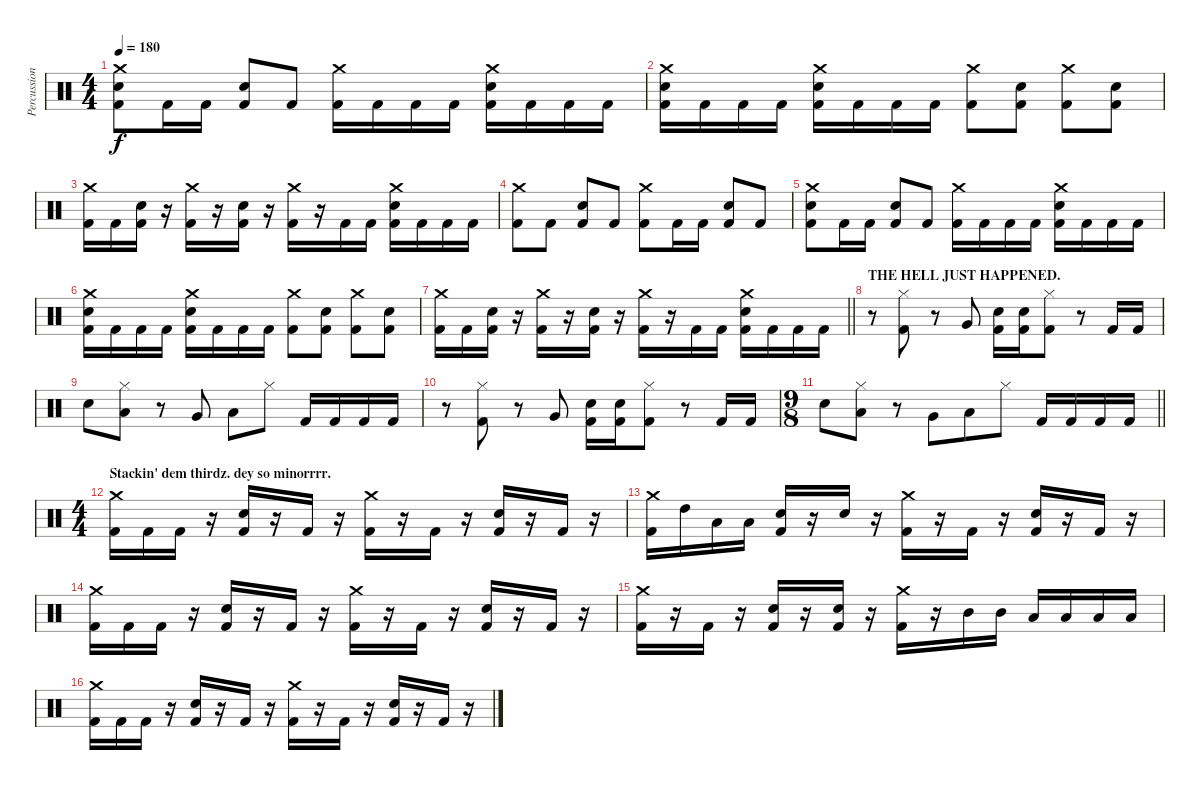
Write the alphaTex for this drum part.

\track ("Percussion" "Percussion") {instrument percussion}
\staff {score}
\articulation defaults
\ts (4 4)
\tempo 180
\clef neutral
\ks c
("Crash medium (hit)" "Electric Snare (hit)" "Kick (hit) 2").8{dy f} "Kick (hit) 2".16 "Kick (hit) 2".16 ("Electric Snare (hit)" "Kick (hit) 2").8 "Kick (hit) 2".8 ("Crash medium (hit)" "Kick (hit) 2").16 "Kick (hit) 2".16 "Kick (hit) 2".16 "Kick (hit) 2".16 ("Crash medium (hit)" "Electric Snare (hit)" "Kick (hit) 2").16 "Kick (hit) 2".16 "Kick (hit) 2".16 "Kick (hit) 2".16 |
("Crash medium (hit)" "Electric Snare (hit)" "Kick (hit) 2").16 "Kick (hit) 2".16 "Kick (hit) 2".16 "Kick (hit) 2".16 ("Crash medium (hit)" "Electric Snare (hit)" "Kick (hit) 2").16 "Kick (hit) 2".16 "Kick (hit) 2".16 "Kick (hit) 2".16 ("Crash medium (hit)" "Kick (hit) 2").8 ("Electric Snare (hit)" "Kick (hit) 2").8 ("Crash medium (hit)" "Kick (hit) 2").8 ("Electric Snare (hit)" "Kick (hit) 2").8 |
("Crash medium (hit)" "Kick (hit) 2").16 "Kick (hit) 2".16 ("Electric Snare (hit)" "Kick (hit) 2").16 r.16 ("Crash medium (hit)" "Kick (hit) 2").16 r.16 ("Electric Snare (hit)" "Kick (hit) 2").16 r.16 ("Crash medium (hit)" "Kick (hit) 2").16 r.16 "Kick (hit) 2".16 "Kick (hit) 2".16 ("Crash medium (hit)" "Electric Snare (hit)" "Kick (hit) 2").16 "Kick (hit) 2".16 "Kick (hit) 2".16 "Kick (hit) 2".16 |
("Crash medium (hit)" "Kick (hit) 2").8 "Kick (hit) 2".8 ("Electric Snare (hit)" "Kick (hit) 2").8 "Kick (hit) 2".8 ("Crash medium (hit)" "Kick (hit) 2").8 "Kick (hit) 2".16 "Kick (hit) 2".16 ("Electric Snare (hit)" "Kick (hit) 2").8 "Kick (hit) 2".8 |
("Crash medium (hit)" "Electric Snare (hit)" "Kick (hit) 2").8 "Kick (hit) 2".16 "Kick (hit) 2".16 ("Electric Snare (hit)" "Kick (hit) 2").8 "Kick (hit) 2".8 ("Crash medium (hit)" "Kick (hit) 2").16 "Kick (hit) 2".16 "Kick (hit) 2".16 "Kick (hit) 2".16 ("Crash medium (hit)" "Electric Snare (hit)" "Kick (hit) 2").16 "Kick (hit) 2".16 "Kick (hit) 2".16 "Kick (hit) 2".16 |
("Crash medium (hit)" "Electric Snare (hit)" "Kick (hit) 2").16 "Kick (hit) 2".16 "Kick (hit) 2".16 "Kick (hit) 2".16 ("Crash medium (hit)" "Electric Snare (hit)" "Kick (hit) 2").16 "Kick (hit) 2".16 "Kick (hit) 2".16 "Kick (hit) 2".16 ("Crash medium (hit)" "Kick (hit) 2").8 ("Electric Snare (hit)" "Kick (hit) 2").8 ("Crash medium (hit)" "Kick (hit) 2").8 ("Electric Snare (hit)" "Kick (hit) 2").8 |
\barLineRight lightlight
("Crash medium (hit)" "Kick (hit) 2").16 "Kick (hit) 2".16 ("Electric Snare (hit)" "Kick (hit) 2").16 r.16 ("Crash medium (hit)" "Kick (hit) 2").16 r.16 ("Electric Snare (hit)" "Kick (hit) 2").16 r.16 ("Crash medium (hit)" "Kick (hit) 2").16 r.16 "Kick (hit) 2".16 "Kick (hit) 2".16 ("Crash medium (hit)" "Electric Snare (hit)" "Kick (hit) 2").16 "Kick (hit) 2".16 "Kick (hit) 2".16 "Kick (hit) 2".16 |
\section ("" "THE HELL JUST HAPPENED.")
r.8 ("Hi-Hat (closed)" "Kick (hit) 2").8 r.8 "Very Low Tom (hit)".8 ("Electric Snare (hit)" "Kick (hit) 2").16 ("Electric Snare (hit)" "Kick (hit) 2").16 ("Hi-Hat (closed)" "Kick (hit) 2").8 r.8 "Kick (hit) 2".16 "Kick (hit) 2".16 |
"Electric Snare (hit)".8 ("Hi-Hat (closed)" "Low Tom (hit)").8 r.8 "Very Low Tom (hit)".8 "Low Floor Tom (hit)".8 "Hi-Hat (closed)".8 "Kick (hit) 2".16 "Kick (hit) 2".16 "Kick (hit) 2".16 "Kick (hit) 2".16 |
r.8 ("Hi-Hat (closed)" "Kick (hit) 2").8 r.8 "Very Low Tom (hit)".8 ("Electric Snare (hit)" "Kick (hit) 2").16 ("Electric Snare (hit)" "Kick (hit) 2").16 ("Hi-Hat (closed)" "Kick (hit) 2").8 r.8 "Kick (hit) 2".16 "Kick (hit) 2".16 |
\ts (9 8)
\barLineRight lightlight "Electric Snare (hit)".8
("Hi-Hat (closed)" "Low Tom (hit)").8 r.8 "Very Low Tom (hit)".8 "Low Floor Tom (hit)".8 "Hi-Hat (closed)".8 "Kick (hit) 2".16 "Kick (hit) 2".16 "Kick (hit) 2".16 "Kick (hit) 2".16 |
\ts (4 4)
\section ("" "Stackin' dem thirdz. dey so minorrrr.")
("Crash medium (hit)" "Kick (hit) 2").16 "Kick (hit) 2".16 "Kick (hit) 2".16 r.16 ("Electric Snare (hit)" "Kick (hit) 2").16 r.16 "Kick (hit) 2".16 r.16 ("Crash medium (hit)" "Kick (hit) 2").16 r.16 "Kick (hit) 2".16 r.16 ("Electric Snare (hit)" "Kick (hit) 2").16 r.16 "Kick (hit) 2".16 r.16 |
("Crash medium (hit)" "Kick (hit) 2").16 "High Tom (hit)".16 "Low Tom (hit)".16 "Low Floor Tom (hit)".16 ("Electric Snare (hit)" "Kick (hit) 2").16 r.16 "Electric Snare (hit)".16 r.16 ("Crash medium (hit)" "Kick (hit) 2").16 r.16 "Kick (hit) 2".16 r.16 ("Electric Snare (hit)" "Kick (hit) 2").16 r.16 "Kick (hit) 2".16 r.16 |
("Crash medium (hit)" "Kick (hit) 2").16 "Kick (hit) 2".16 "Kick (hit) 2".16 r.16 ("Electric Snare (hit)" "Kick (hit) 2").16 r.16 "Kick (hit) 2".16 r.16 ("Crash medium (hit)" "Kick (hit) 2").16 r.16 "Kick (hit) 2".16 r.16 ("Electric Snare (hit)" "Kick (hit) 2").16 r.16 "Kick (hit) 2".16 r.16 |
("Crash medium (hit)" "Kick (hit) 2").16 r.16 "Kick (hit) 2".16 r.16 ("Electric Snare (hit)" "Kick (hit) 2").16 r.16 ("Electric Snare (hit)" "Kick (hit) 2").16 r.16 ("Crash medium (hit)" "Kick (hit) 2").16 r.16 "Mid Tom (hit)".16 "Mid Tom (hit)".16 "Low Tom (hit)".16 "Low Tom (hit)".16 "Low Floor Tom (hit)".16 "Low Floor Tom (hit)".16 |
("Crash medium (hit)" "Kick (hit) 2").16 "Kick (hit) 2".16 "Kick (hit) 2".16 r.16 ("Electric Snare (hit)" "Kick (hit) 2").16 r.16 "Kick (hit) 2".16 r.16 ("Crash medium (hit)" "Kick (hit) 2").16 r.16 "Kick (hit) 2".16 r.16 ("Electric Snare (hit)" "Kick (hit) 2").16 r.16 "Kick (hit) 2".16 r.16
